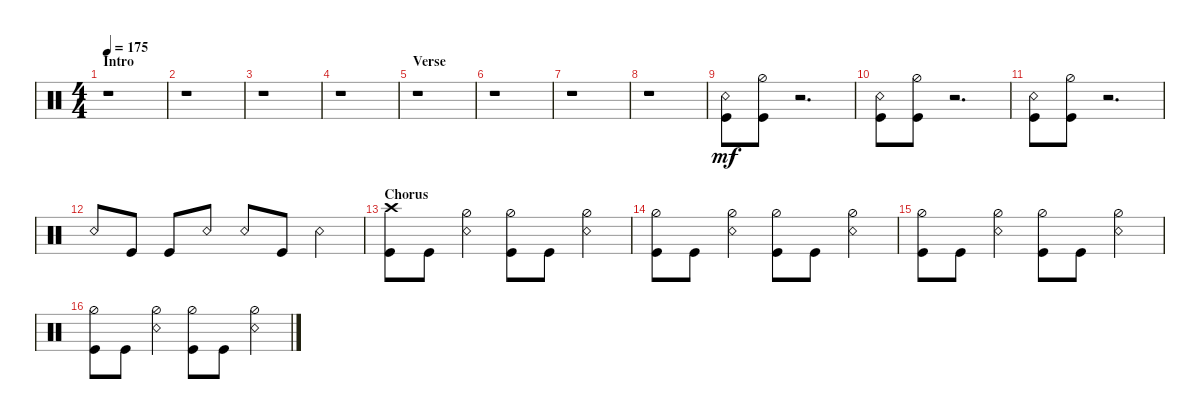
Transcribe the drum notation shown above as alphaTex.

\defaultSystemsLayout 4
\bracketExtendMode groupsimilarinstruments
\singleTrackTrackNamePolicy hidden
\multiTrackTrackNamePolicy hidden
\firstSystemTrackNameOrientation horizontal
\otherSystemsTrackNameOrientation horizontal
\track ("Drumkit" "Drums") {solo instrument percussion}
\staff {score}
\articulation defaults
\ts (4 4)
\section ("" "Intro")
\tempo 175
\clef neutral
\ks c
r.1{dy mf} |
r.1 |
r.1 |
r.1 |
\section ("" "Verse")
r.1 |
r.1 |
r.1 |
r.1 |
("Kick (hit)" "Snare (rim shot)").8 ("Kick (hit)" "Hi-Hat (half)").8 r.2{d} |
("Kick (hit)" "Snare (rim shot)").8 ("Kick (hit)" "Hi-Hat (half)").8 r.2{d} |
("Kick (hit)" "Snare (rim shot)").8 ("Kick (hit)" "Hi-Hat (half)").8 r.2{d} |
"Snare (rim shot)".8 "Kick (hit)".8 "Kick (hit)".8 "Snare (rim shot)".8 "Snare (rim shot)".8 "Kick (hit)".8 "Snare (rim shot)".4 |
\section ("" "Chorus")
("Kick (hit)" "Crash high (hit)").8 "Kick (hit)".8 ("Snare (rim shot)" "Hi-Hat (half)").4 ("Kick (hit)" "Hi-Hat (half)").8 "Kick (hit)".8 ("Snare (rim shot)" "Hi-Hat (half)").4 |
("Kick (hit)" "Hi-Hat (half)").8 "Kick (hit)".8 ("Snare (rim shot)" "Hi-Hat (half)").4 ("Kick (hit)" "Hi-Hat (half)").8 "Kick (hit)".8 ("Snare (rim shot)" "Hi-Hat (half)").4 |
("Kick (hit)" "Hi-Hat (half)").8 "Kick (hit)".8 ("Snare (rim shot)" "Hi-Hat (half)").4 ("Kick (hit)" "Hi-Hat (half)").8 "Kick (hit)".8 ("Snare (rim shot)" "Hi-Hat (half)").4 |
("Kick (hit)" "Hi-Hat (half)").8 "Kick (hit)".8 ("Snare (rim shot)" "Hi-Hat (half)").4 ("Kick (hit)" "Hi-Hat (half)").8 "Kick (hit)".8 ("Snare (rim shot)" "Hi-Hat (half)").4
